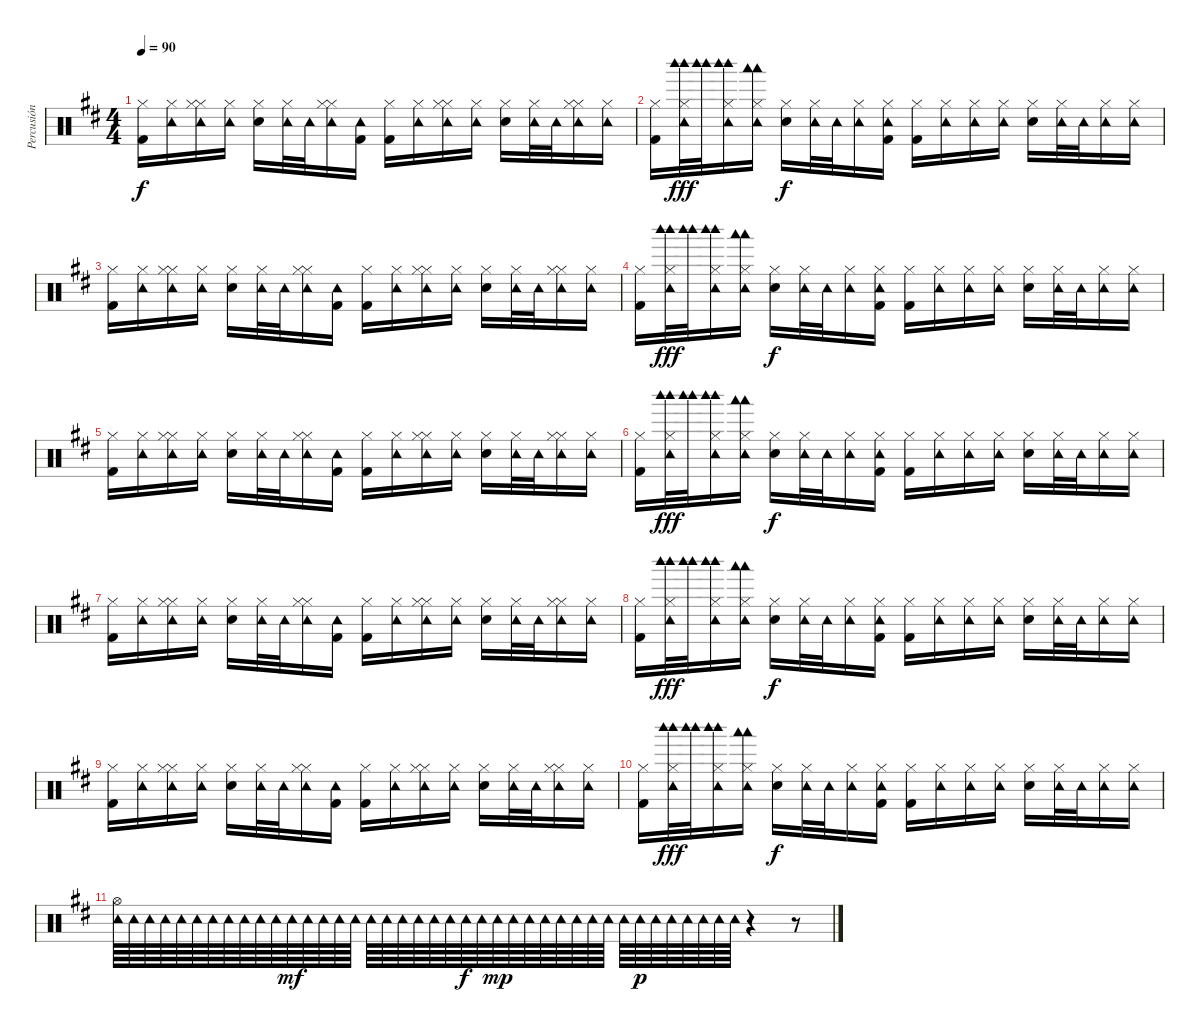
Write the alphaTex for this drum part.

\track ("Percusión" "Percusión") {instrument percussion}
\staff
\articulation defaults
\ts (4 4)
\tempo 90
\clef neutral
\ks bminor
("Kick (hit) 2" "Hi-Hat (closed)").16{dy f} ("Tambourine (hit)" "Hi-Hat (closed)").16 ("Hi-Hat (closed)" "Tambourine (hit)" "Hi-Hat (closed)").16 ("Tambourine (hit)" "Hi-Hat (closed)").16 ("Electric Snare (hit)" "Hi-Hat (closed)").16 ("Tambourine (hit)" "Hi-Hat (closed)").32 "Tambourine (hit)".32 ("Hi-Hat (closed)" "Tambourine (hit)" "Hi-Hat (closed)").16 ("Kick (hit) 2" "Tambourine (hit)").16 ("Kick (hit) 2" "Hi-Hat (closed)").16 ("Tambourine (hit)" "Hi-Hat (closed)").16 ("Hi-Hat (closed)" "Tambourine (hit)" "Hi-Hat (closed)").16 ("Tambourine (hit)" "Hi-Hat (closed)").16 ("Electric Snare (hit)" "Hi-Hat (closed)").16 ("Tambourine (hit)" "Hi-Hat (closed)").32 "Tambourine (hit)".32 ("Hi-Hat (closed)" "Tambourine (hit)" "Hi-Hat (closed)").16 ("Tambourine (hit)" "Hi-Hat (closed)").16 |
("Kick (hit) 2" "Hi-Hat (closed)").16 ("Hi-Hat (closed)" "Tambourine (hit)" "Woodblock high (hit)" "Woodblock high (hit)").32{dy fff} ("Woodblock high (hit)" "Woodblock high (hit)").32 ("Hi-Hat (closed)" "Tambourine (hit)" "Woodblock high (hit)" "Woodblock high (hit)").16 ("Hi-Hat (closed)" "Tambourine (hit)" "Woodblock low (hit)" "Woodblock low (hit)").16 ("Electric Snare (hit)" "Hi-Hat (closed)").16{dy f} ("Hi-Hat (closed)" "Tambourine (hit)").32 "Tambourine (hit)".32 ("Hi-Hat (closed)" "Tambourine (hit)").16 ("Kick (hit) 2" "Hi-Hat (closed)" "Tambourine (hit)").16 ("Kick (hit) 2" "Hi-Hat (closed)").16 ("Hi-Hat (closed)" "Tambourine (hit)").16 ("Hi-Hat (closed)" "Tambourine (hit)").16 ("Hi-Hat (closed)" "Tambourine (hit)").16 ("Electric Snare (hit)" "Hi-Hat (closed)").16 ("Hi-Hat (closed)" "Tambourine (hit)").32 "Tambourine (hit)".32 ("Hi-Hat (closed)" "Tambourine (hit)").16 ("Hi-Hat (closed)" "Tambourine (hit)").16 |
("Kick (hit) 2" "Hi-Hat (closed)").16 ("Tambourine (hit)" "Hi-Hat (closed)").16 ("Hi-Hat (closed)" "Tambourine (hit)" "Hi-Hat (closed)").16 ("Tambourine (hit)" "Hi-Hat (closed)").16 ("Electric Snare (hit)" "Hi-Hat (closed)").16 ("Tambourine (hit)" "Hi-Hat (closed)").32 "Tambourine (hit)".32 ("Hi-Hat (closed)" "Tambourine (hit)" "Hi-Hat (closed)").16 ("Kick (hit) 2" "Tambourine (hit)").16 ("Kick (hit) 2" "Hi-Hat (closed)").16 ("Tambourine (hit)" "Hi-Hat (closed)").16 ("Hi-Hat (closed)" "Tambourine (hit)" "Hi-Hat (closed)").16 ("Tambourine (hit)" "Hi-Hat (closed)").16 ("Electric Snare (hit)" "Hi-Hat (closed)").16 ("Tambourine (hit)" "Hi-Hat (closed)").32 "Tambourine (hit)".32 ("Hi-Hat (closed)" "Tambourine (hit)" "Hi-Hat (closed)").16 ("Tambourine (hit)" "Hi-Hat (closed)").16 |
("Kick (hit) 2" "Hi-Hat (closed)").16 ("Hi-Hat (closed)" "Tambourine (hit)" "Woodblock high (hit)" "Woodblock high (hit)").32{dy fff} ("Woodblock high (hit)" "Woodblock high (hit)").32 ("Hi-Hat (closed)" "Tambourine (hit)" "Woodblock high (hit)" "Woodblock high (hit)").16 ("Hi-Hat (closed)" "Tambourine (hit)" "Woodblock low (hit)" "Woodblock low (hit)").16 ("Electric Snare (hit)" "Hi-Hat (closed)").16{dy f} ("Hi-Hat (closed)" "Tambourine (hit)").32 "Tambourine (hit)".32 ("Hi-Hat (closed)" "Tambourine (hit)").16 ("Kick (hit) 2" "Hi-Hat (closed)" "Tambourine (hit)").16 ("Kick (hit) 2" "Hi-Hat (closed)").16 ("Hi-Hat (closed)" "Tambourine (hit)").16 ("Hi-Hat (closed)" "Tambourine (hit)").16 ("Hi-Hat (closed)" "Tambourine (hit)").16 ("Electric Snare (hit)" "Hi-Hat (closed)").16 ("Hi-Hat (closed)" "Tambourine (hit)").32 "Tambourine (hit)".32 ("Hi-Hat (closed)" "Tambourine (hit)").16 ("Hi-Hat (closed)" "Tambourine (hit)").16 |
("Kick (hit) 2" "Hi-Hat (closed)").16 ("Tambourine (hit)" "Hi-Hat (closed)").16 ("Hi-Hat (closed)" "Tambourine (hit)" "Hi-Hat (closed)").16 ("Tambourine (hit)" "Hi-Hat (closed)").16 ("Electric Snare (hit)" "Hi-Hat (closed)").16 ("Tambourine (hit)" "Hi-Hat (closed)").32 "Tambourine (hit)".32 ("Hi-Hat (closed)" "Tambourine (hit)" "Hi-Hat (closed)").16 ("Kick (hit) 2" "Tambourine (hit)").16 ("Kick (hit) 2" "Hi-Hat (closed)").16 ("Tambourine (hit)" "Hi-Hat (closed)").16 ("Hi-Hat (closed)" "Tambourine (hit)" "Hi-Hat (closed)").16 ("Tambourine (hit)" "Hi-Hat (closed)").16 ("Electric Snare (hit)" "Hi-Hat (closed)").16 ("Tambourine (hit)" "Hi-Hat (closed)").32 "Tambourine (hit)".32 ("Hi-Hat (closed)" "Tambourine (hit)" "Hi-Hat (closed)").16 ("Tambourine (hit)" "Hi-Hat (closed)").16 |
("Kick (hit) 2" "Hi-Hat (closed)").16 ("Hi-Hat (closed)" "Tambourine (hit)" "Woodblock high (hit)" "Woodblock high (hit)").32{dy fff} ("Woodblock high (hit)" "Woodblock high (hit)").32 ("Hi-Hat (closed)" "Tambourine (hit)" "Woodblock high (hit)" "Woodblock high (hit)").16 ("Hi-Hat (closed)" "Tambourine (hit)" "Woodblock low (hit)" "Woodblock low (hit)").16 ("Electric Snare (hit)" "Hi-Hat (closed)").16{dy f} ("Hi-Hat (closed)" "Tambourine (hit)").32 "Tambourine (hit)".32 ("Hi-Hat (closed)" "Tambourine (hit)").16 ("Kick (hit) 2" "Hi-Hat (closed)" "Tambourine (hit)").16 ("Kick (hit) 2" "Hi-Hat (closed)").16 ("Hi-Hat (closed)" "Tambourine (hit)").16 ("Hi-Hat (closed)" "Tambourine (hit)").16 ("Hi-Hat (closed)" "Tambourine (hit)").16 ("Electric Snare (hit)" "Hi-Hat (closed)").16 ("Hi-Hat (closed)" "Tambourine (hit)").32 "Tambourine (hit)".32 ("Hi-Hat (closed)" "Tambourine (hit)").16 ("Hi-Hat (closed)" "Tambourine (hit)").16 |
("Kick (hit) 2" "Hi-Hat (closed)").16 ("Tambourine (hit)" "Hi-Hat (closed)").16 ("Hi-Hat (closed)" "Tambourine (hit)" "Hi-Hat (closed)").16 ("Tambourine (hit)" "Hi-Hat (closed)").16 ("Electric Snare (hit)" "Hi-Hat (closed)").16 ("Tambourine (hit)" "Hi-Hat (closed)").32 "Tambourine (hit)".32 ("Hi-Hat (closed)" "Tambourine (hit)" "Hi-Hat (closed)").16 ("Kick (hit) 2" "Tambourine (hit)").16 ("Kick (hit) 2" "Hi-Hat (closed)").16 ("Tambourine (hit)" "Hi-Hat (closed)").16 ("Hi-Hat (closed)" "Tambourine (hit)" "Hi-Hat (closed)").16 ("Tambourine (hit)" "Hi-Hat (closed)").16 ("Electric Snare (hit)" "Hi-Hat (closed)").16 ("Tambourine (hit)" "Hi-Hat (closed)").32 "Tambourine (hit)".32 ("Hi-Hat (closed)" "Tambourine (hit)" "Hi-Hat (closed)").16 ("Tambourine (hit)" "Hi-Hat (closed)").16 |
("Kick (hit) 2" "Hi-Hat (closed)").16 ("Hi-Hat (closed)" "Tambourine (hit)" "Woodblock high (hit)" "Woodblock high (hit)").32{dy fff} ("Woodblock high (hit)" "Woodblock high (hit)").32 ("Hi-Hat (closed)" "Tambourine (hit)" "Woodblock high (hit)" "Woodblock high (hit)").16 ("Hi-Hat (closed)" "Tambourine (hit)" "Woodblock low (hit)" "Woodblock low (hit)").16 ("Electric Snare (hit)" "Hi-Hat (closed)").16{dy f} ("Hi-Hat (closed)" "Tambourine (hit)").32 "Tambourine (hit)".32 ("Hi-Hat (closed)" "Tambourine (hit)").16 ("Kick (hit) 2" "Hi-Hat (closed)" "Tambourine (hit)").16 ("Kick (hit) 2" "Hi-Hat (closed)").16 ("Hi-Hat (closed)" "Tambourine (hit)").16 ("Hi-Hat (closed)" "Tambourine (hit)").16 ("Hi-Hat (closed)" "Tambourine (hit)").16 ("Electric Snare (hit)" "Hi-Hat (closed)").16 ("Hi-Hat (closed)" "Tambourine (hit)").32 "Tambourine (hit)".32 ("Hi-Hat (closed)" "Tambourine (hit)").16 ("Hi-Hat (closed)" "Tambourine (hit)").16 |
("Kick (hit) 2" "Hi-Hat (closed)").16 ("Tambourine (hit)" "Hi-Hat (closed)").16 ("Hi-Hat (closed)" "Tambourine (hit)" "Hi-Hat (closed)").16 ("Tambourine (hit)" "Hi-Hat (closed)").16 ("Electric Snare (hit)" "Hi-Hat (closed)").16 ("Tambourine (hit)" "Hi-Hat (closed)").32 "Tambourine (hit)".32 ("Hi-Hat (closed)" "Tambourine (hit)" "Hi-Hat (closed)").16 ("Kick (hit) 2" "Tambourine (hit)").16 ("Kick (hit) 2" "Hi-Hat (closed)").16 ("Tambourine (hit)" "Hi-Hat (closed)").16 ("Hi-Hat (closed)" "Tambourine (hit)" "Hi-Hat (closed)").16 ("Tambourine (hit)" "Hi-Hat (closed)").16 ("Electric Snare (hit)" "Hi-Hat (closed)").16 ("Tambourine (hit)" "Hi-Hat (closed)").32 "Tambourine (hit)".32 ("Hi-Hat (closed)" "Tambourine (hit)" "Hi-Hat (closed)").16 ("Tambourine (hit)" "Hi-Hat (closed)").16 |
("Kick (hit) 2" "Hi-Hat (closed)").16 ("Hi-Hat (closed)" "Tambourine (hit)" "Woodblock high (hit)" "Woodblock high (hit)").32{dy fff} ("Woodblock high (hit)" "Woodblock high (hit)").32 ("Hi-Hat (closed)" "Tambourine (hit)" "Woodblock high (hit)" "Woodblock high (hit)").16 ("Hi-Hat (closed)" "Tambourine (hit)" "Woodblock low (hit)" "Woodblock low (hit)").16 ("Electric Snare (hit)" "Hi-Hat (closed)").16{dy f} ("Hi-Hat (closed)" "Tambourine (hit)").32 "Tambourine (hit)".32 ("Hi-Hat (closed)" "Tambourine (hit)").16 ("Kick (hit) 2" "Hi-Hat (closed)" "Tambourine (hit)").16 ("Kick (hit) 2" "Hi-Hat (closed)").16 ("Hi-Hat (closed)" "Tambourine (hit)").16 ("Hi-Hat (closed)" "Tambourine (hit)").16 ("Hi-Hat (closed)" "Tambourine (hit)").16 ("Electric Snare (hit)" "Hi-Hat (closed)").16 ("Hi-Hat (closed)" "Tambourine (hit)").32 "Tambourine (hit)".32 ("Hi-Hat (closed)" "Tambourine (hit)").16 ("Hi-Hat (closed)" "Tambourine (hit)").16 |
("Hi-Hat (open)" "Tambourine (hit)").64 "Tambourine (hit)".64 "Tambourine (hit)".64 "Tambourine (hit)".64 "Tambourine (hit)".64 "Tambourine (hit)".64 "Tambourine (hit)".64 "Tambourine (hit)".64 "Tambourine (hit)".64 "Tambourine (hit)".64 "Tambourine (hit)".64 "Tambourine (hit)".64{dy mf} "Tambourine (hit)".64 "Tambourine (hit)".64 "Tambourine (hit)".64 "Tambourine (hit)".64 "Tambourine (hit)".64 "Tambourine (hit)".64 "Tambourine (hit)".64 "Tambourine (hit)".64 "Tambourine (hit)".64 "Tambourine (hit)".64 "Tambourine (hit)".64{dy f} "Tambourine (hit)".64 "Tambourine (hit)".64{dy mp} "Tambourine (hit)".64 "Tambourine (hit)".64 "Tambourine (hit)".64 "Tambourine (hit)".64 "Tambourine (hit)".64 "Tambourine (hit)".64 "Tambourine (hit)".64 "Tambourine (hit)".64 "Tambourine (hit)".64{dy p} "Tambourine (hit)".64 "Tambourine (hit)".64 "Tambourine (hit)".64 "Tambourine (hit)".64 "Tambourine (hit)".64 "Tambourine (hit)".64 r.4 r.8
